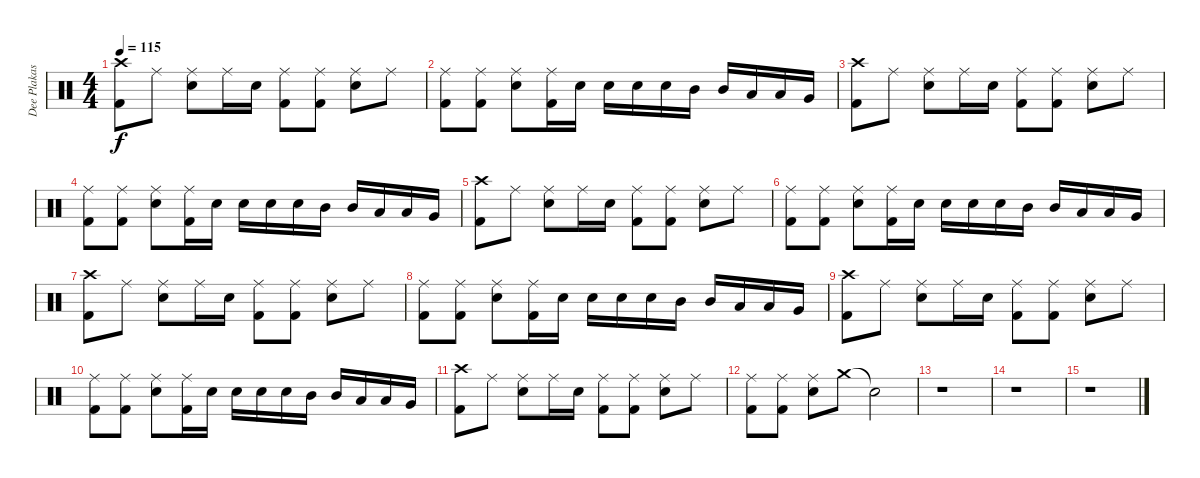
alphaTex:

\track ("Dee Plakas" "Dee Plakas") {instrument percussion}
\staff {score}
\articulation defaults
\ts (4 4)
\tempo 115
\clef neutral
\ks c
("Crash high (hit)" "Kick (hit) 2").8{dy f} "Ride (middle)".8 ("Ride (middle)" "Snare (hit) 2").8 "Ride (middle)".16 "Snare (hit) 2".16 ("Ride (middle)" "Kick (hit) 2").8 ("Ride (middle)" "Kick (hit) 2").8 ("Ride (middle)" "Snare (hit) 2").8 "Ride (middle)".8 |
("Ride (middle)" "Kick (hit) 2").8 ("Ride (middle)" "Kick (hit) 2").8 ("Ride (middle)" "Snare (hit) 2").8 ("Ride (middle)" "Kick (hit) 2").16 "Snare (hit) 2".16 "Snare (hit) 2".16 "Snare (hit) 2".16 "Snare (hit) 2".16 "Mid Tom (hit)".16 "Mid Tom (hit)".16 "Low Tom (hit)".16 "Low Tom (hit)".16 "Very Low Tom (hit)".16 |
("Crash high (hit)" "Kick (hit) 2").8 "Ride (middle)".8 ("Ride (middle)" "Snare (hit) 2").8 "Ride (middle)".16 "Snare (hit) 2".16 ("Ride (middle)" "Kick (hit) 2").8 ("Ride (middle)" "Kick (hit) 2").8 ("Ride (middle)" "Snare (hit) 2").8 "Ride (middle)".8 |
("Ride (middle)" "Kick (hit) 2").8 ("Ride (middle)" "Kick (hit) 2").8 ("Ride (middle)" "Snare (hit) 2").8 ("Ride (middle)" "Kick (hit) 2").16 "Snare (hit) 2".16 "Snare (hit) 2".16 "Snare (hit) 2".16 "Snare (hit) 2".16 "Mid Tom (hit)".16 "Mid Tom (hit)".16 "Low Tom (hit)".16 "Low Tom (hit)".16 "Very Low Tom (hit)".16 |
("Crash high (hit)" "Kick (hit) 2").8 "Ride (middle)".8 ("Ride (middle)" "Snare (hit) 2").8 "Ride (middle)".16 "Snare (hit) 2".16 ("Ride (middle)" "Kick (hit) 2").8 ("Ride (middle)" "Kick (hit) 2").8 ("Ride (middle)" "Snare (hit) 2").8 "Ride (middle)".8 |
("Ride (middle)" "Kick (hit) 2").8 ("Ride (middle)" "Kick (hit) 2").8 ("Ride (middle)" "Snare (hit) 2").8 ("Ride (middle)" "Kick (hit) 2").16 "Snare (hit) 2".16 "Snare (hit) 2".16 "Snare (hit) 2".16 "Snare (hit) 2".16 "Mid Tom (hit)".16 "Mid Tom (hit)".16 "Low Tom (hit)".16 "Low Tom (hit)".16 "Very Low Tom (hit)".16 |
("Crash high (hit)" "Kick (hit) 2").8 "Ride (middle)".8 ("Ride (middle)" "Snare (hit) 2").8 "Ride (middle)".16 "Snare (hit) 2".16 ("Ride (middle)" "Kick (hit) 2").8 ("Ride (middle)" "Kick (hit) 2").8 ("Ride (middle)" "Snare (hit) 2").8 "Ride (middle)".8 |
("Ride (middle)" "Kick (hit) 2").8 ("Ride (middle)" "Kick (hit) 2").8 ("Ride (middle)" "Snare (hit) 2").8 ("Ride (middle)" "Kick (hit) 2").16 "Snare (hit) 2".16 "Snare (hit) 2".16 "Snare (hit) 2".16 "Snare (hit) 2".16 "Mid Tom (hit)".16 "Mid Tom (hit)".16 "Low Tom (hit)".16 "Low Tom (hit)".16 "Very Low Tom (hit)".16 |
("Crash high (hit)" "Kick (hit) 2").8 "Ride (middle)".8 ("Ride (middle)" "Snare (hit) 2").8 "Ride (middle)".16 "Snare (hit) 2".16 ("Ride (middle)" "Kick (hit) 2").8 ("Ride (middle)" "Kick (hit) 2").8 ("Ride (middle)" "Snare (hit) 2").8 "Ride (middle)".8 |
("Ride (middle)" "Kick (hit) 2").8 ("Ride (middle)" "Kick (hit) 2").8 ("Ride (middle)" "Snare (hit) 2").8 ("Ride (middle)" "Kick (hit) 2").16 "Snare (hit) 2".16 "Snare (hit) 2".16 "Snare (hit) 2".16 "Snare (hit) 2".16 "Mid Tom (hit)".16 "Mid Tom (hit)".16 "Low Tom (hit)".16 "Low Tom (hit)".16 "Very Low Tom (hit)".16 |
("Crash high (hit)" "Kick (hit) 2").8 "Ride (middle)".8 ("Ride (middle)" "Snare (hit) 2").8 "Ride (middle)".16 "Snare (hit) 2".16 ("Ride (middle)" "Kick (hit) 2").8 ("Ride (middle)" "Kick (hit) 2").8 ("Ride (middle)" "Snare (hit) 2").8 "Ride (middle)".8 |
("Ride (middle)" "Kick (hit) 2").8 ("Ride (middle)" "Kick (hit) 2").8 ("Ride (middle)" "Snare (hit) 2").8 "Crash medium (hit)".8 "Snare (hit)"{t}.2 |
r.1 |
r.1 |
r.1
